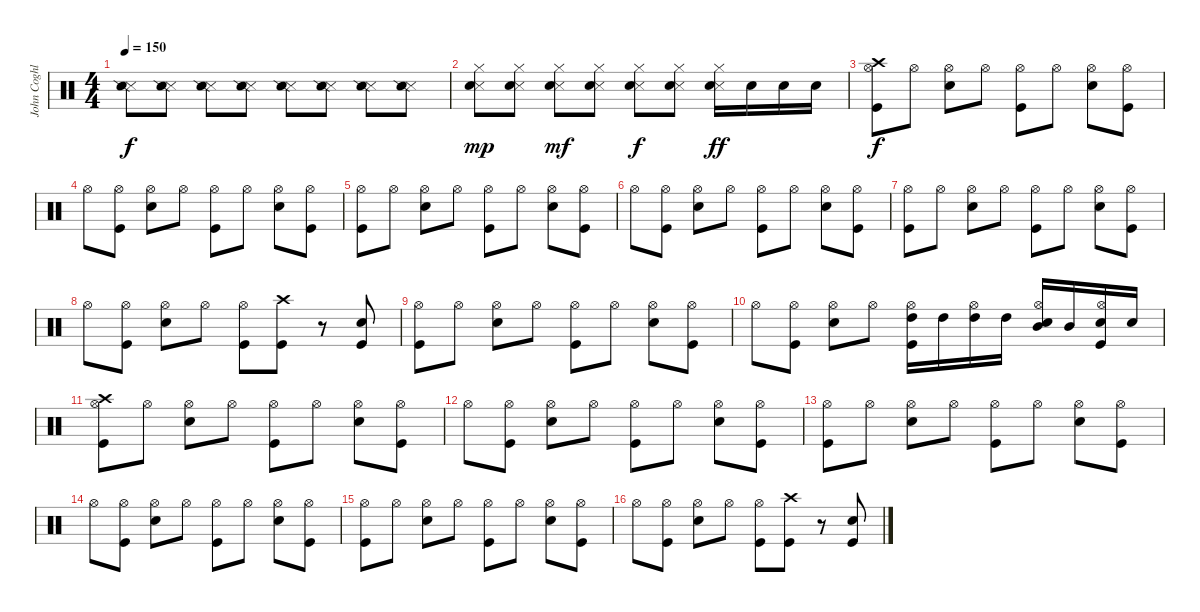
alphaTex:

\track ("John Coghlan" "John Coghl") {instrument percussion}
\staff {score}
\articulation defaults
\ts (4 4)
\tempo 150
\clef neutral
\ks c
("Snare (side stick) 3" "Snare (side stick) 2").8{dy f} ("Snare (side stick) 3" "Snare (side stick) 2").8 ("Snare (side stick) 3" "Snare (side stick) 2").8 ("Snare (side stick) 3" "Snare (side stick) 2").8 ("Snare (side stick) 3" "Snare (side stick) 2").8 ("Snare (side stick) 3" "Snare (side stick) 2").8 ("Snare (side stick) 3" "Snare (side stick) 2").8 ("Snare (side stick) 3" "Snare (side stick) 2").8 |
("Snare (side stick) 3" "Hi-Hat (closed)" "Electric Snare (hit)").8{dy mp} ("Snare (side stick) 3" "Hi-Hat (closed)" "Electric Snare (hit)").8 ("Snare (side stick) 3" "Hi-Hat (closed)" "Electric Snare (hit)").8{dy mf} ("Snare (side stick) 3" "Hi-Hat (closed)" "Electric Snare (hit)").8 ("Snare (side stick) 3" "Hi-Hat (closed)" "Electric Snare (hit)").8{dy f} ("Snare (side stick) 3" "Hi-Hat (closed)" "Electric Snare (hit)").8 ("Snare (side stick) 3" "Hi-Hat (closed)" "Electric Snare (hit)").16{dy ff} "Electric Snare (hit)".16 "Electric Snare (hit)".16 "Electric Snare (hit)".16 |
("Crash high (hit)" "Hi-Hat (open)" "Kick (hit)").8{dy f} "Hi-Hat (open)".8 ("Electric Snare (hit)" "Hi-Hat (open)").8 "Hi-Hat (open)".8 ("Hi-Hat (open)" "Kick (hit)").8 "Hi-Hat (open)".8 ("Electric Snare (hit)" "Hi-Hat (open)").8 ("Hi-Hat (open)" "Kick (hit)").8 |
"Hi-Hat (open)".8 ("Hi-Hat (open)" "Kick (hit)").8 ("Electric Snare (hit)" "Hi-Hat (open)").8 "Hi-Hat (open)".8 ("Hi-Hat (open)" "Kick (hit)").8 "Hi-Hat (open)".8 ("Electric Snare (hit)" "Hi-Hat (open)").8 ("Hi-Hat (open)" "Kick (hit)").8 |
("Hi-Hat (open)" "Kick (hit)").8 "Hi-Hat (open)".8 ("Electric Snare (hit)" "Hi-Hat (open)").8 "Hi-Hat (open)".8 ("Hi-Hat (open)" "Kick (hit)").8 "Hi-Hat (open)".8 ("Electric Snare (hit)" "Hi-Hat (open)").8 ("Hi-Hat (open)" "Kick (hit)").8 |
"Hi-Hat (open)".8 ("Hi-Hat (open)" "Kick (hit)").8 ("Electric Snare (hit)" "Hi-Hat (open)").8 "Hi-Hat (open)".8 ("Hi-Hat (open)" "Kick (hit)").8 "Hi-Hat (open)".8 ("Electric Snare (hit)" "Hi-Hat (open)").8 ("Hi-Hat (open)" "Kick (hit)").8 |
("Hi-Hat (open)" "Kick (hit)").8 "Hi-Hat (open)".8 ("Electric Snare (hit)" "Hi-Hat (open)").8 "Hi-Hat (open)".8 ("Hi-Hat (open)" "Kick (hit)").8 "Hi-Hat (open)".8 ("Electric Snare (hit)" "Hi-Hat (open)").8 ("Hi-Hat (open)" "Kick (hit)").8 |
"Hi-Hat (open)".8 ("Hi-Hat (open)" "Kick (hit)").8 ("Electric Snare (hit)" "Hi-Hat (open)").8 "Hi-Hat (open)".8 ("Hi-Hat (open)" "Kick (hit)").8 ("Crash high (hit)" "Kick (hit)").8 r.8 ("Electric Snare (hit)" "Kick (hit)").8 |
("Hi-Hat (open)" "Kick (hit)").8 "Hi-Hat (open)".8 ("Electric Snare (hit)" "Hi-Hat (open)").8 "Hi-Hat (open)".8 ("Hi-Hat (open)" "Kick (hit)").8 "Hi-Hat (open)".8 ("Electric Snare (hit)" "Hi-Hat (open)").8 ("Hi-Hat (open)" "Kick (hit)").8 |
"Hi-Hat (open)".8 ("Hi-Hat (open)" "Kick (hit)").8 ("Electric Snare (hit)" "Hi-Hat (open)").8 "Hi-Hat (open)".8 ("High Tom (hit)" "Hi-Hat (open)" "Kick (hit)").16 "High Tom (hit)".16 ("High Tom (hit)" "Hi-Hat (open)").16 "High Tom (hit)".16 ("Mid Tom (hit)" "Electric Snare (hit)" "Hi-Hat (open)").16 "Mid Tom (hit)".16 ("Electric Snare (hit)" "Hi-Hat (open)" "Kick (hit)").16 "Electric Snare (hit)".16 |
("Crash high (hit)" "Hi-Hat (open)" "Kick (hit)").8 "Hi-Hat (open)".8 ("Electric Snare (hit)" "Hi-Hat (open)").8 "Hi-Hat (open)".8 ("Hi-Hat (open)" "Kick (hit)").8 "Hi-Hat (open)".8 ("Electric Snare (hit)" "Hi-Hat (open)").8 ("Hi-Hat (open)" "Kick (hit)").8 |
"Hi-Hat (open)".8 ("Hi-Hat (open)" "Kick (hit)").8 ("Electric Snare (hit)" "Hi-Hat (open)").8 "Hi-Hat (open)".8 ("Hi-Hat (open)" "Kick (hit)").8 "Hi-Hat (open)".8 ("Electric Snare (hit)" "Hi-Hat (open)").8 ("Hi-Hat (open)" "Kick (hit)").8 |
("Hi-Hat (open)" "Kick (hit)").8 "Hi-Hat (open)".8 ("Electric Snare (hit)" "Hi-Hat (open)").8 "Hi-Hat (open)".8 ("Hi-Hat (open)" "Kick (hit)").8 "Hi-Hat (open)".8 ("Electric Snare (hit)" "Hi-Hat (open)").8 ("Hi-Hat (open)" "Kick (hit)").8 |
"Hi-Hat (open)".8 ("Hi-Hat (open)" "Kick (hit)").8 ("Electric Snare (hit)" "Hi-Hat (open)").8 "Hi-Hat (open)".8 ("Hi-Hat (open)" "Kick (hit)").8 "Hi-Hat (open)".8 ("Electric Snare (hit)" "Hi-Hat (open)").8 ("Hi-Hat (open)" "Kick (hit)").8 |
("Hi-Hat (open)" "Kick (hit)").8 "Hi-Hat (open)".8 ("Electric Snare (hit)" "Hi-Hat (open)").8 "Hi-Hat (open)".8 ("Hi-Hat (open)" "Kick (hit)").8 "Hi-Hat (open)".8 ("Electric Snare (hit)" "Hi-Hat (open)").8 ("Hi-Hat (open)" "Kick (hit)").8 |
"Hi-Hat (open)".8 ("Hi-Hat (open)" "Kick (hit)").8 ("Electric Snare (hit)" "Hi-Hat (open)").8 "Hi-Hat (open)".8 ("Hi-Hat (open)" "Kick (hit)").8 ("Crash high (hit)" "Kick (hit)").8 r.8 ("Electric Snare (hit)" "Kick (hit)").8
